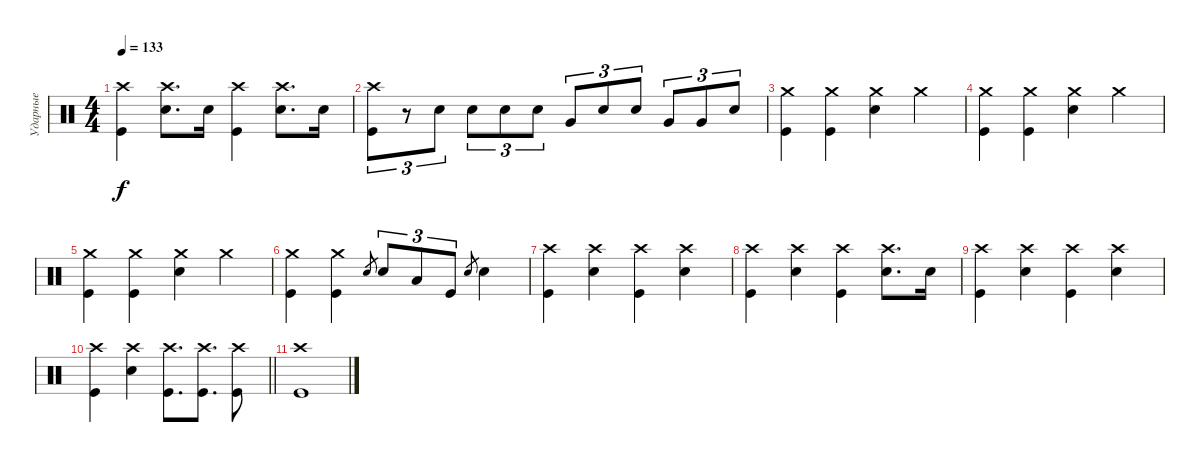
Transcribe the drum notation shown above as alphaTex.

\track ("Ударные" "Ударные") {instrument percussion}
\staff {score}
\articulation defaults
\ts (4 4)
\tempo 133
\clef neutral
\ks c
("Crash high (hit)" "Kick (hit)").4{dy f} ("Crash high (hit)" "Electric Snare (hit)").8{d} "Electric Snare (hit)".16 ("Crash high (hit)" "Kick (hit)").4 ("Crash high (hit)" "Electric Snare (hit)").8{d} "Electric Snare (hit)".16 |
("Crash high (hit)" "Kick (hit)").8{tu (3 2)} r.8{tu (3 2)} "Electric Snare (hit)".8{tu (3 2)} "Electric Snare (hit)".8{tu (3 2)} "Electric Snare (hit)".8{tu (3 2)} "Electric Snare (hit)".8{tu (3 2)} "Very Low Tom (hit)".8{tu (3 2)} "Electric Snare (hit)".8{tu (3 2)} "Electric Snare (hit)".8{tu (3 2)} "Very Low Tom (hit)".8{tu (3 2)} "Very Low Tom (hit)".8{tu (3 2)} "Electric Snare (hit)".8{tu (3 2)} |
("Crash medium (hit)" "Kick (hit)").4 ("Crash medium (hit)" "Kick (hit)").4 ("Crash medium (hit)" "Electric Snare (hit)").4 "Crash medium (hit)".4 |
("Crash medium (hit)" "Kick (hit)").4 ("Crash medium (hit)" "Kick (hit)").4 ("Crash medium (hit)" "Electric Snare (hit)").4 "Crash medium (hit)".4 |
("Crash medium (hit)" "Kick (hit)").4 ("Crash medium (hit)" "Kick (hit)").4 ("Crash medium (hit)" "Electric Snare (hit)").4 "Crash medium (hit)".4 |
("Crash medium (hit)" "Kick (hit)").4 ("Crash medium (hit)" "Kick (hit)").4 "Electric Snare (hit)".8{gr} "Electric Snare (hit)".8{tu (3 2)} "Low Tom (hit)".8{tu (3 2)} "Kick (hit)".8{tu (3 2)} "Electric Snare (hit)".8{gr} "Electric Snare (hit)".4 |
("Crash high (hit)" "Kick (hit)").4 ("Crash high (hit)" "Electric Snare (hit)").4 ("Crash high (hit)" "Kick (hit)").4 ("Crash high (hit)" "Electric Snare (hit)").4 |
("Crash high (hit)" "Kick (hit)").4 ("Crash high (hit)" "Electric Snare (hit)").4 ("Crash high (hit)" "Kick (hit)").4 ("Crash high (hit)" "Electric Snare (hit)").8{d} "Electric Snare (hit)".16 |
("Crash high (hit)" "Kick (hit)").4 ("Crash high (hit)" "Electric Snare (hit)").4 ("Crash high (hit)" "Kick (hit)").4 ("Crash high (hit)" "Electric Snare (hit)").4 |
\barLineRight lightlight
("Crash high (hit)" "Kick (hit)").4 ("Crash high (hit)" "Electric Snare (hit)").4 ("Crash high (hit)" "Kick (hit)").8{d} ("Crash high (hit)" "Kick (hit)").8{d} ("Crash high (hit)" "Kick (hit)").8 |
("Crash high (hit)" "Kick (hit)").1
